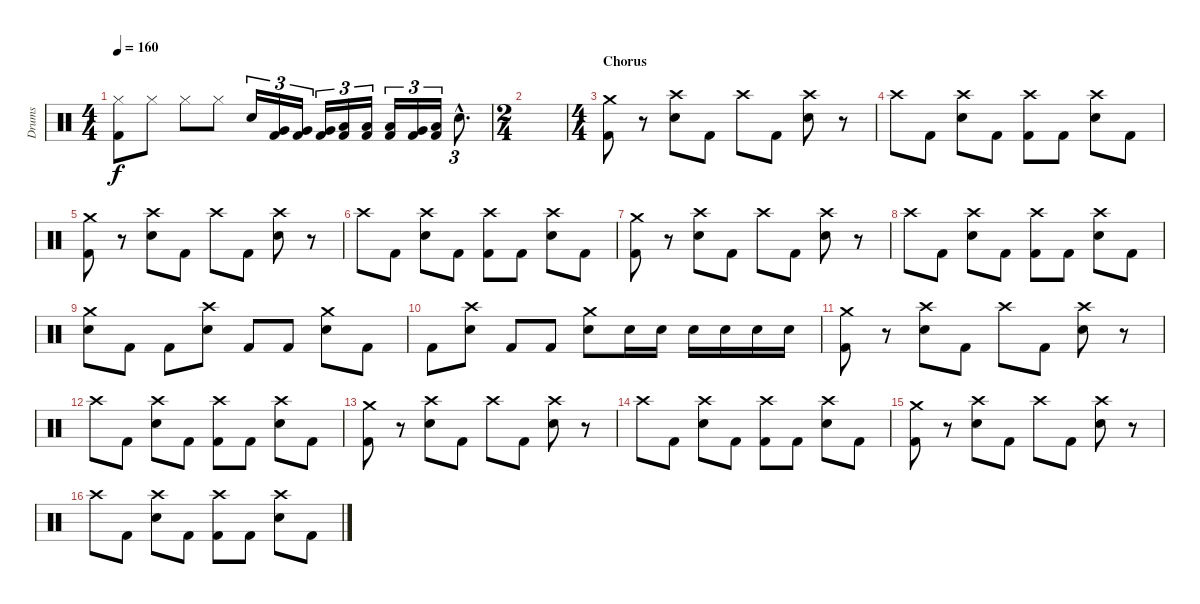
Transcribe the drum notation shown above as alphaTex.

\track ("Drums" "Drums") {instrument percussion}
\staff {score}
\articulation defaults
\ts (4 4)
\tempo 160
\clef neutral
\ks c
("Hi-Hat (closed)" "Kick (hit) 2").8{dy f} "Hi-Hat (closed)".8 "Hi-Hat (closed)".8 "Hi-Hat (closed)".8 "Electric Snare (hit)".16{tu (3 2)} ("Very Low Tom (hit)" "Kick (hit) 2").16{tu (3 2)} ("Very Low Tom (hit)" "Kick (hit) 2").16{tu (3 2)} ("Very Low Tom (hit)" "Kick (hit) 2").16{tu (3 2)} ("Low Floor Tom (hit)" "Kick (hit) 2").16{tu (3 2)} ("Low Floor Tom (hit)" "Kick (hit) 2").16{tu (3 2)} ("Low Floor Tom (hit)" "Kick (hit) 2").16{tu (3 2)} ("Very Low Tom (hit)" "Kick (hit) 2").16{tu (3 2)} ("Low Floor Tom (hit)" "Kick (hit) 2").16{tu (3 2)} "Electric Snare (hit)"{hac}.8{d tu (3 2)} |
\ts (2 4)
|
\ts (4 4)
\section ("" "Chorus")
("Crash medium (hit)" "Kick (hit) 2").8 r.8 ("Crash high (hit)" "Electric Snare (hit)").8 "Kick (hit) 2".8 "Crash high (hit)".8 "Kick (hit) 2".8 ("Crash high (hit)" "Electric Snare (hit)").8 r.8 |
"Crash high (hit)".8 "Kick (hit) 2".8 ("Crash high (hit)" "Electric Snare (hit)").8 "Kick (hit) 2".8 ("Crash high (hit)" "Kick (hit) 2").8 "Kick (hit) 2".8 ("Crash high (hit)" "Electric Snare (hit)").8 "Kick (hit) 2".8 |
("Crash medium (hit)" "Kick (hit) 2").8 r.8 ("Crash high (hit)" "Electric Snare (hit)").8 "Kick (hit) 2".8 "Crash high (hit)".8 "Kick (hit) 2".8 ("Crash high (hit)" "Electric Snare (hit)").8 r.8 |
"Crash high (hit)".8 "Kick (hit) 2".8 ("Crash high (hit)" "Electric Snare (hit)").8 "Kick (hit) 2".8 ("Crash high (hit)" "Kick (hit) 2").8 "Kick (hit) 2".8 ("Crash high (hit)" "Electric Snare (hit)").8 "Kick (hit) 2".8 |
("Crash medium (hit)" "Kick (hit) 2").8 r.8 ("Crash high (hit)" "Electric Snare (hit)").8 "Kick (hit) 2".8 "Crash high (hit)".8 "Kick (hit) 2".8 ("Crash high (hit)" "Electric Snare (hit)").8 r.8 |
"Crash high (hit)".8 "Kick (hit) 2".8 ("Crash high (hit)" "Electric Snare (hit)").8 "Kick (hit) 2".8 ("Crash high (hit)" "Kick (hit) 2").8 "Kick (hit) 2".8 ("Crash high (hit)" "Electric Snare (hit)").8 "Kick (hit) 2".8 |
("Crash medium (hit)" "Electric Snare (hit)").8 "Kick (hit) 2".8 "Kick (hit) 2".8 ("Crash high (hit)" "Electric Snare (hit)").8 "Kick (hit) 2".8 "Kick (hit) 2".8 ("Crash medium (hit)" "Electric Snare (hit)").8 "Kick (hit) 2".8 |
"Kick (hit) 2".8 ("Crash high (hit)" "Electric Snare (hit)").8 "Kick (hit) 2".8 "Kick (hit) 2".8 ("Crash medium (hit)" "Electric Snare (hit)").8 "Electric Snare (hit)".16 "Electric Snare (hit)".16 "Electric Snare (hit)".16 "Electric Snare (hit)".16 "Electric Snare (hit)".16 "Electric Snare (hit)".16 |
("Crash medium (hit)" "Kick (hit) 2").8 r.8 ("Crash high (hit)" "Electric Snare (hit)").8 "Kick (hit) 2".8 "Crash high (hit)".8 "Kick (hit) 2".8 ("Crash high (hit)" "Electric Snare (hit)").8 r.8 |
"Crash high (hit)".8 "Kick (hit) 2".8 ("Crash high (hit)" "Electric Snare (hit)").8 "Kick (hit) 2".8 ("Crash high (hit)" "Kick (hit) 2").8 "Kick (hit) 2".8 ("Crash high (hit)" "Electric Snare (hit)").8 "Kick (hit) 2".8 |
("Crash medium (hit)" "Kick (hit) 2").8 r.8 ("Crash high (hit)" "Electric Snare (hit)").8 "Kick (hit) 2".8 "Crash high (hit)".8 "Kick (hit) 2".8 ("Crash high (hit)" "Electric Snare (hit)").8 r.8 |
"Crash high (hit)".8 "Kick (hit) 2".8 ("Crash high (hit)" "Electric Snare (hit)").8 "Kick (hit) 2".8 ("Crash high (hit)" "Kick (hit) 2").8 "Kick (hit) 2".8 ("Crash high (hit)" "Electric Snare (hit)").8 "Kick (hit) 2".8 |
("Crash medium (hit)" "Kick (hit) 2").8 r.8 ("Crash high (hit)" "Electric Snare (hit)").8 "Kick (hit) 2".8 "Crash high (hit)".8 "Kick (hit) 2".8 ("Crash high (hit)" "Electric Snare (hit)").8 r.8 |
"Crash high (hit)".8 "Kick (hit) 2".8 ("Crash high (hit)" "Electric Snare (hit)").8 "Kick (hit) 2".8 ("Crash high (hit)" "Kick (hit) 2").8 "Kick (hit) 2".8 ("Crash high (hit)" "Electric Snare (hit)").8 "Kick (hit) 2".8
